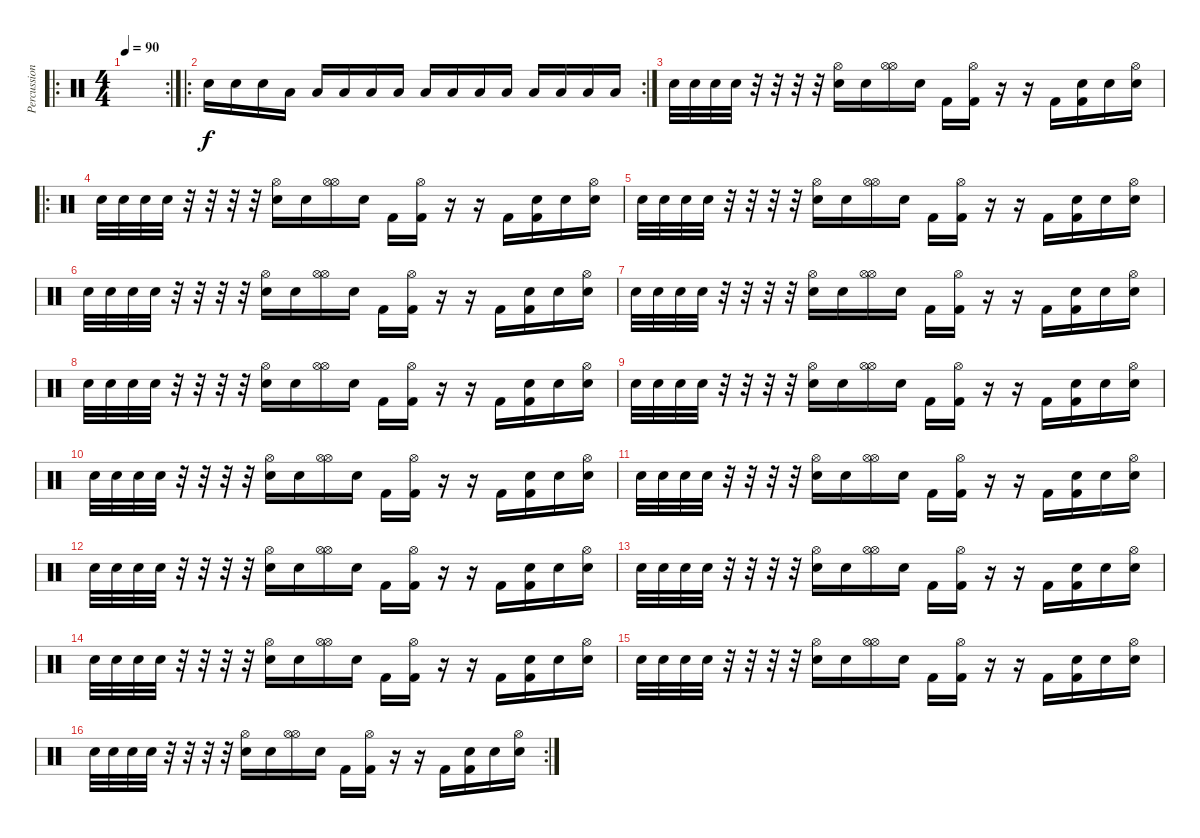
\track ("Percussion" "Percussion") {instrument percussion}
\staff {score}
\articulation defaults
\ro
\rc 2
\ts (4 4)
\tempo 90
\clef neutral
\ks c
|
\ro
\rc 2 "Electric Snare (hit)".16 "Electric Snare (hit)".16 "Electric Snare (hit)".16 "Low Tom (hit)".16 "Low Tom (hit)".16 "Low Tom (hit)".16 "Low Tom (hit)".16 "Low Tom (hit)".16 "Low Tom (hit)".16 "Low Tom (hit)".16 "Low Tom (hit)".16 "Low Tom (hit)".16 "Low Tom (hit)".16 "Low Tom (hit)".16 "Low Tom (hit)".16 "Low Tom (hit)".16
|
"Electric Snare (hit)".32 "Electric Snare (hit)".32 "Electric Snare (hit)".32 "Electric Snare (hit)".32 r.32 r.32 r.32 r.32 ("Hi-Hat (open)" "Electric Snare (hit)").16 "Electric Snare (hit)".16 ("Hi-Hat (open)" "Hi-Hat (open)").16 "Electric Snare (hit)".16 "Kick (hit) 2".16 ("Hi-Hat (open)" "Kick (hit) 2").16 r.16 r.16 "Kick (hit) 2".16 ("Electric Snare (hit)" "Kick (hit) 2").16 "Electric Snare (hit)".16 ("Hi-Hat (open)" "Electric Snare (hit)").16 |
\ro "Electric Snare (hit)".32 "Electric Snare (hit)".32 "Electric Snare (hit)".32 "Electric Snare (hit)".32
r.32 r.32 r.32 r.32 ("Hi-Hat (open)" "Electric Snare (hit)").16 "Electric Snare (hit)".16 ("Hi-Hat (open)" "Hi-Hat (open)").16 "Electric Snare (hit)".16 "Kick (hit) 2".16 ("Hi-Hat (open)" "Kick (hit) 2").16 r.16 r.16 "Kick (hit) 2".16 ("Electric Snare (hit)" "Kick (hit) 2").16 "Electric Snare (hit)".16 ("Hi-Hat (open)" "Electric Snare (hit)").16 |
"Electric Snare (hit)".32 "Electric Snare (hit)".32 "Electric Snare (hit)".32 "Electric Snare (hit)".32 r.32 r.32 r.32 r.32 ("Hi-Hat (open)" "Electric Snare (hit)").16 "Electric Snare (hit)".16 ("Hi-Hat (open)" "Hi-Hat (open)").16 "Electric Snare (hit)".16 "Kick (hit) 2".16 ("Hi-Hat (open)" "Kick (hit) 2").16 r.16 r.16 "Kick (hit) 2".16 ("Electric Snare (hit)" "Kick (hit) 2").16 "Electric Snare (hit)".16 ("Hi-Hat (open)" "Electric Snare (hit)").16 |
"Electric Snare (hit)".32 "Electric Snare (hit)".32 "Electric Snare (hit)".32 "Electric Snare (hit)".32 r.32 r.32 r.32 r.32 ("Hi-Hat (open)" "Electric Snare (hit)").16 "Electric Snare (hit)".16 ("Hi-Hat (open)" "Hi-Hat (open)").16 "Electric Snare (hit)".16 "Kick (hit) 2".16 ("Hi-Hat (open)" "Kick (hit) 2").16 r.16 r.16 "Kick (hit) 2".16 ("Electric Snare (hit)" "Kick (hit) 2").16 "Electric Snare (hit)".16 ("Hi-Hat (open)" "Electric Snare (hit)").16 |
"Electric Snare (hit)".32 "Electric Snare (hit)".32 "Electric Snare (hit)".32 "Electric Snare (hit)".32 r.32 r.32 r.32 r.32 ("Hi-Hat (open)" "Electric Snare (hit)").16 "Electric Snare (hit)".16 ("Hi-Hat (open)" "Hi-Hat (open)").16 "Electric Snare (hit)".16 "Kick (hit) 2".16 ("Hi-Hat (open)" "Kick (hit) 2").16 r.16 r.16 "Kick (hit) 2".16 ("Electric Snare (hit)" "Kick (hit) 2").16 "Electric Snare (hit)".16 ("Hi-Hat (open)" "Electric Snare (hit)").16 |
"Electric Snare (hit)".32 "Electric Snare (hit)".32 "Electric Snare (hit)".32 "Electric Snare (hit)".32 r.32 r.32 r.32 r.32 ("Hi-Hat (open)" "Electric Snare (hit)").16 "Electric Snare (hit)".16 ("Hi-Hat (open)" "Hi-Hat (open)").16 "Electric Snare (hit)".16 "Kick (hit) 2".16 ("Hi-Hat (open)" "Kick (hit) 2").16 r.16 r.16 "Kick (hit) 2".16 ("Electric Snare (hit)" "Kick (hit) 2").16 "Electric Snare (hit)".16 ("Hi-Hat (open)" "Electric Snare (hit)").16 |
"Electric Snare (hit)".32 "Electric Snare (hit)".32 "Electric Snare (hit)".32 "Electric Snare (hit)".32 r.32 r.32 r.32 r.32 ("Hi-Hat (open)" "Electric Snare (hit)").16 "Electric Snare (hit)".16 ("Hi-Hat (open)" "Hi-Hat (open)").16 "Electric Snare (hit)".16 "Kick (hit) 2".16 ("Hi-Hat (open)" "Kick (hit) 2").16 r.16 r.16 "Kick (hit) 2".16 ("Electric Snare (hit)" "Kick (hit) 2").16 "Electric Snare (hit)".16 ("Hi-Hat (open)" "Electric Snare (hit)").16 |
"Electric Snare (hit)".32 "Electric Snare (hit)".32 "Electric Snare (hit)".32 "Electric Snare (hit)".32 r.32 r.32 r.32 r.32 ("Hi-Hat (open)" "Electric Snare (hit)").16 "Electric Snare (hit)".16 ("Hi-Hat (open)" "Hi-Hat (open)").16 "Electric Snare (hit)".16 "Kick (hit) 2".16 ("Hi-Hat (open)" "Kick (hit) 2").16 r.16 r.16 "Kick (hit) 2".16 ("Electric Snare (hit)" "Kick (hit) 2").16 "Electric Snare (hit)".16 ("Hi-Hat (open)" "Electric Snare (hit)").16 |
"Electric Snare (hit)".32 "Electric Snare (hit)".32 "Electric Snare (hit)".32 "Electric Snare (hit)".32 r.32 r.32 r.32 r.32 ("Hi-Hat (open)" "Electric Snare (hit)").16 "Electric Snare (hit)".16 ("Hi-Hat (open)" "Hi-Hat (open)").16 "Electric Snare (hit)".16 "Kick (hit) 2".16 ("Hi-Hat (open)" "Kick (hit) 2").16 r.16 r.16 "Kick (hit) 2".16 ("Electric Snare (hit)" "Kick (hit) 2").16 "Electric Snare (hit)".16 ("Hi-Hat (open)" "Electric Snare (hit)").16 |
"Electric Snare (hit)".32 "Electric Snare (hit)".32 "Electric Snare (hit)".32 "Electric Snare (hit)".32 r.32 r.32 r.32 r.32 ("Hi-Hat (open)" "Electric Snare (hit)").16 "Electric Snare (hit)".16 ("Hi-Hat (open)" "Hi-Hat (open)").16 "Electric Snare (hit)".16 "Kick (hit) 2".16 ("Hi-Hat (open)" "Kick (hit) 2").16 r.16 r.16 "Kick (hit) 2".16 ("Electric Snare (hit)" "Kick (hit) 2").16 "Electric Snare (hit)".16 ("Hi-Hat (open)" "Electric Snare (hit)").16 |
"Electric Snare (hit)".32 "Electric Snare (hit)".32 "Electric Snare (hit)".32 "Electric Snare (hit)".32 r.32 r.32 r.32 r.32 ("Hi-Hat (open)" "Electric Snare (hit)").16 "Electric Snare (hit)".16 ("Hi-Hat (open)" "Hi-Hat (open)").16 "Electric Snare (hit)".16 "Kick (hit) 2".16 ("Hi-Hat (open)" "Kick (hit) 2").16 r.16 r.16 "Kick (hit) 2".16 ("Electric Snare (hit)" "Kick (hit) 2").16 "Electric Snare (hit)".16 ("Hi-Hat (open)" "Electric Snare (hit)").16 |
"Electric Snare (hit)".32 "Electric Snare (hit)".32 "Electric Snare (hit)".32 "Electric Snare (hit)".32 r.32 r.32 r.32 r.32 ("Hi-Hat (open)" "Electric Snare (hit)").16 "Electric Snare (hit)".16 ("Hi-Hat (open)" "Hi-Hat (open)").16 "Electric Snare (hit)".16 "Kick (hit) 2".16 ("Hi-Hat (open)" "Kick (hit) 2").16 r.16 r.16 "Kick (hit) 2".16 ("Electric Snare (hit)" "Kick (hit) 2").16 "Electric Snare (hit)".16 ("Hi-Hat (open)" "Electric Snare (hit)").16 |
"Electric Snare (hit)".32 "Electric Snare (hit)".32 "Electric Snare (hit)".32 "Electric Snare (hit)".32 r.32 r.32 r.32 r.32 ("Hi-Hat (open)" "Electric Snare (hit)").16 "Electric Snare (hit)".16 ("Hi-Hat (open)" "Hi-Hat (open)").16 "Electric Snare (hit)".16 "Kick (hit) 2".16 ("Hi-Hat (open)" "Kick (hit) 2").16 r.16 r.16 "Kick (hit) 2".16 ("Electric Snare (hit)" "Kick (hit) 2").16 "Electric Snare (hit)".16 ("Hi-Hat (open)" "Electric Snare (hit)").16 |
\rc 2 "Electric Snare (hit)".32 "Electric Snare (hit)".32 "Electric Snare (hit)".32 "Electric Snare (hit)".32
r.32 r.32 r.32 r.32 ("Hi-Hat (open)" "Electric Snare (hit)").16 "Electric Snare (hit)".16 ("Hi-Hat (open)" "Hi-Hat (open)").16 "Electric Snare (hit)".16 "Kick (hit) 2".16 ("Hi-Hat (open)" "Kick (hit) 2").16 r.16 r.16 "Kick (hit) 2".16 ("Electric Snare (hit)" "Kick (hit) 2").16 "Electric Snare (hit)".16 ("Hi-Hat (open)" "Electric Snare (hit)").16
